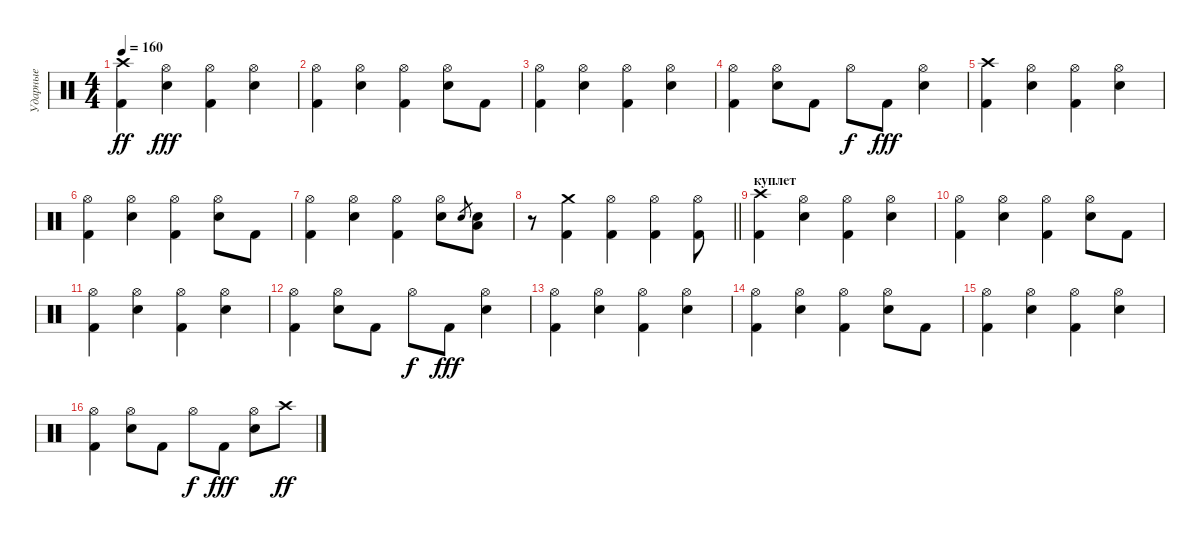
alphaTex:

\track ("Ударные" "Ударные") {instrument percussion}
\staff {score}
\articulation defaults
\ts (4 4)
\tempo 160
\clef neutral
\ks c
("Kick (hit) 2" "Crash high (hit)").4{dy ff} ("Electric Snare (hit)" "Hi-Hat (open)").4{dy fff} ("Kick (hit) 2" "Hi-Hat (open)").4 ("Electric Snare (hit)" "Hi-Hat (open)").4 |
("Kick (hit) 2" "Hi-Hat (open)").4 ("Electric Snare (hit)" "Hi-Hat (open)").4 ("Kick (hit) 2" "Hi-Hat (open)").4 ("Electric Snare (hit)" "Hi-Hat (open)").8 "Kick (hit) 2".8 |
("Kick (hit) 2" "Hi-Hat (open)").4 ("Electric Snare (hit)" "Hi-Hat (open)").4 ("Kick (hit) 2" "Hi-Hat (open)").4 ("Electric Snare (hit)" "Hi-Hat (open)").4 |
("Kick (hit) 2" "Hi-Hat (open)").4 ("Electric Snare (hit)" "Hi-Hat (open)").8 "Kick (hit) 2".8 "Hi-Hat (open)".8{dy f} "Kick (hit) 2".8{dy fff} ("Electric Snare (hit)" "Hi-Hat (open)").4 |
("Kick (hit) 2" "Crash high (hit)").4 ("Electric Snare (hit)" "Hi-Hat (open)").4 ("Kick (hit) 2" "Hi-Hat (open)").4 ("Electric Snare (hit)" "Hi-Hat (open)").4 |
("Kick (hit) 2" "Hi-Hat (open)").4 ("Electric Snare (hit)" "Hi-Hat (open)").4 ("Kick (hit) 2" "Hi-Hat (open)").4 ("Electric Snare (hit)" "Hi-Hat (open)").8 "Kick (hit) 2".8 |
("Kick (hit) 2" "Hi-Hat (open)").4 ("Electric Snare (hit)" "Hi-Hat (open)").4 ("Kick (hit) 2" "Hi-Hat (open)").4 ("Electric Snare (hit)" "Hi-Hat (open)").8 "Electric Snare (hit)".8{gr} ("Electric Snare (hit)" "Low Floor Tom (hit)").8 |
\barLineRight lightlight
r.8 ("Kick (hit) 2" "Crash medium (hit)").4 ("Kick (hit) 2" "Hi-Hat (open)").4 ("Kick (hit) 2" "Hi-Hat (open)").4 ("Kick (hit) 2" "Hi-Hat (open)").8 |
\section ("" "куплет")
("Kick (hit) 2" "Crash high (hit)").4 ("Electric Snare (hit)" "Hi-Hat (open)").4 ("Kick (hit) 2" "Hi-Hat (open)").4 ("Electric Snare (hit)" "Hi-Hat (open)").4 |
("Kick (hit) 2" "Hi-Hat (open)").4 ("Electric Snare (hit)" "Hi-Hat (open)").4 ("Kick (hit) 2" "Hi-Hat (open)").4 ("Electric Snare (hit)" "Hi-Hat (open)").8 "Kick (hit) 2".8 |
("Kick (hit) 2" "Hi-Hat (open)").4 ("Electric Snare (hit)" "Hi-Hat (open)").4 ("Kick (hit) 2" "Hi-Hat (open)").4 ("Electric Snare (hit)" "Hi-Hat (open)").4 |
("Kick (hit) 2" "Hi-Hat (open)").4 ("Electric Snare (hit)" "Hi-Hat (open)").8 "Kick (hit) 2".8 "Hi-Hat (open)".8{dy f} "Kick (hit) 2".8{dy fff} ("Electric Snare (hit)" "Hi-Hat (open)").4 |
("Kick (hit) 2" "Hi-Hat (open)").4 ("Electric Snare (hit)" "Hi-Hat (open)").4 ("Kick (hit) 2" "Hi-Hat (open)").4 ("Electric Snare (hit)" "Hi-Hat (open)").4 |
("Kick (hit) 2" "Hi-Hat (open)").4 ("Electric Snare (hit)" "Hi-Hat (open)").4 ("Kick (hit) 2" "Hi-Hat (open)").4 ("Electric Snare (hit)" "Hi-Hat (open)").8 "Kick (hit) 2".8 |
("Kick (hit) 2" "Hi-Hat (open)").4 ("Electric Snare (hit)" "Hi-Hat (open)").4 ("Kick (hit) 2" "Hi-Hat (open)").4 ("Electric Snare (hit)" "Hi-Hat (open)").4 |
("Kick (hit) 2" "Hi-Hat (open)").4 ("Electric Snare (hit)" "Hi-Hat (open)").8 "Kick (hit) 2".8 "Hi-Hat (open)".8{dy f} "Kick (hit) 2".8{dy fff} ("Electric Snare (hit)" "Hi-Hat (open)").8 "Crash high (hit)".8{dy ff}
